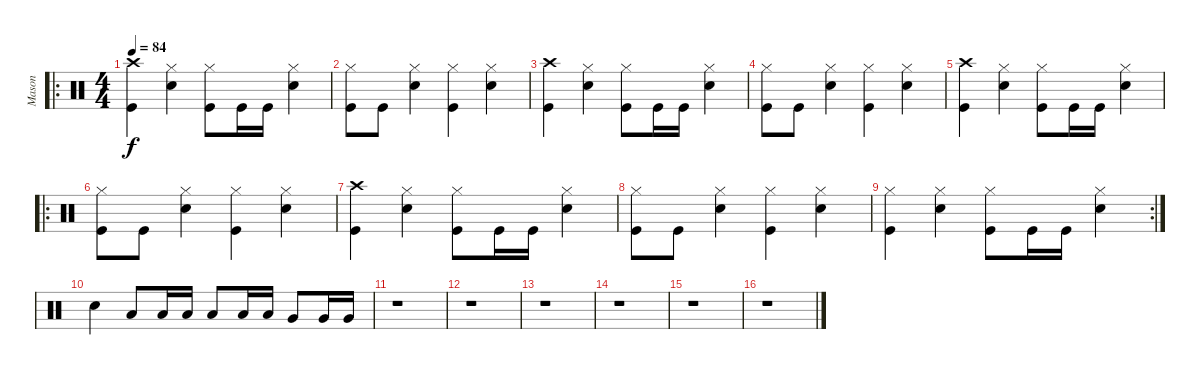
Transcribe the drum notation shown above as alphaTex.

\track ("Mason" "Mason") {instrument percussion}
\staff {score}
\articulation defaults
\ro
\ts (4 4)
\tempo 84
\clef neutral
\ks c
("Kick (hit)" "Crash high (hit)").4{dy f} ("Snare (hit) 2" "Hi-Hat (closed)").4 ("Kick (hit)" "Hi-Hat (closed)").8 "Kick (hit)".16 "Kick (hit)".16 ("Snare (hit) 2" "Hi-Hat (closed)").4 |
("Kick (hit)" "Hi-Hat (closed)").8 "Kick (hit)".8 ("Snare (hit) 2" "Hi-Hat (closed)").4 ("Kick (hit)" "Hi-Hat (closed)").4 ("Snare (hit) 2" "Hi-Hat (closed)").4 |
("Kick (hit)" "Crash high (hit)").4 ("Snare (hit) 2" "Hi-Hat (closed)").4 ("Kick (hit)" "Hi-Hat (closed)").8 "Kick (hit)".16 "Kick (hit)".16 ("Snare (hit) 2" "Hi-Hat (closed)").4 |
("Kick (hit)" "Hi-Hat (closed)").8 "Kick (hit)".8 ("Snare (hit) 2" "Hi-Hat (closed)").4 ("Kick (hit)" "Hi-Hat (closed)").4 ("Snare (hit) 2" "Hi-Hat (closed)").4 |
("Kick (hit)" "Crash high (hit)").4 ("Snare (hit) 2" "Hi-Hat (closed)").4 ("Kick (hit)" "Hi-Hat (closed)").8 "Kick (hit)".16 "Kick (hit)".16 ("Snare (hit) 2" "Hi-Hat (closed)").4 |
\ro
("Kick (hit)" "Hi-Hat (closed)").8 "Kick (hit)".8 ("Snare (hit) 2" "Hi-Hat (closed)").4 ("Kick (hit)" "Hi-Hat (closed)").4 ("Snare (hit) 2" "Hi-Hat (closed)").4 |
("Kick (hit)" "Crash high (hit)").4 ("Snare (hit) 2" "Hi-Hat (closed)").4 ("Kick (hit)" "Hi-Hat (closed)").8 "Kick (hit)".16 "Kick (hit)".16 ("Snare (hit) 2" "Hi-Hat (closed)").4 |
("Kick (hit)" "Hi-Hat (closed)").8 "Kick (hit)".8 ("Snare (hit) 2" "Hi-Hat (closed)").4 ("Kick (hit)" "Hi-Hat (closed)").4 ("Snare (hit) 2" "Hi-Hat (closed)").4 |
\rc 2
("Kick (hit)" "Hi-Hat (closed)").4 ("Snare (hit) 2" "Hi-Hat (closed)").4 ("Kick (hit)" "Hi-Hat (closed)").8 "Kick (hit)".16 "Kick (hit)".16 ("Snare (hit) 2" "Hi-Hat (closed)").4 |
"Snare (hit) 2".4 "Low Tom (hit)".8 "Low Tom (hit)".16 "Low Tom (hit)".16 "Low Floor Tom (hit)".8 "Low Floor Tom (hit)".16 "Low Floor Tom (hit)".16 "Very Low Tom (hit)".8 "Very Low Tom (hit)".16 "Very Low Tom (hit)".16 |
r.1 |
r.1 |
r.1 |
r.1 |
r.1 |
r.1
